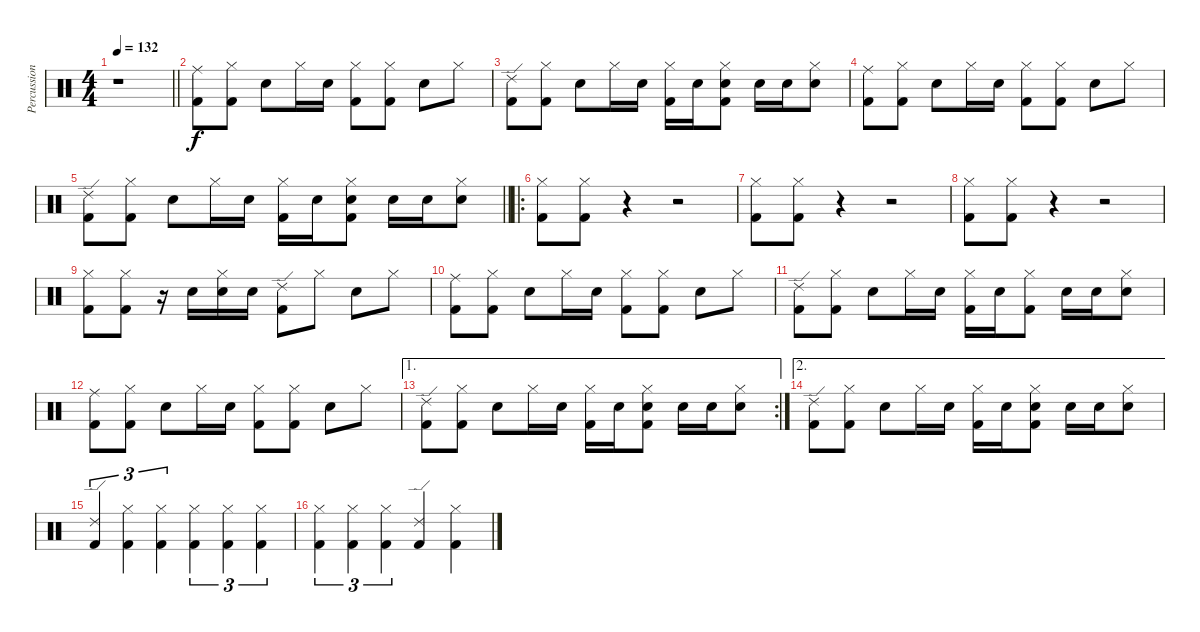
\track ("Percussions" "Percussion") {instrument percussion}
\staff {score}
\articulation defaults
\ts (4 4)
\tempo 132
\clef neutral
\barLineRight lightlight
\ks c
r.1{dy f} |
("Ride (middle)" "Kick (hit) 2").8 ("Hi-Hat (closed)" "Kick (hit) 2").8 "Snare (hit) 2".8 "Hi-Hat (closed)".16 "Snare (hit) 2".16 ("Hi-Hat (closed)" "Kick (hit) 2").8 ("Hi-Hat (closed)" "Kick (hit) 2").8 "Snare (hit) 2".8 "Hi-Hat (closed)".8 |
("Ride (edge) 2" "Kick (hit) 2").8 ("Hi-Hat (closed)" "Kick (hit) 2").8 "Snare (hit) 2".8 "Hi-Hat (closed)".16 "Snare (hit) 2".16 ("Hi-Hat (closed)" "Kick (hit) 2").16 "Snare (hit) 2".16 ("Hi-Hat (closed)" "Snare (hit) 2" "Kick (hit) 2").8 "Snare (hit) 2".16 "Snare (hit) 2".16 ("Hi-Hat (closed)" "Snare (hit) 2").8 |
("Ride (middle)" "Kick (hit) 2").8 ("Hi-Hat (closed)" "Kick (hit) 2").8 "Snare (hit) 2".8 "Hi-Hat (closed)".16 "Snare (hit) 2".16 ("Hi-Hat (closed)" "Kick (hit) 2").8 ("Hi-Hat (closed)" "Kick (hit) 2").8 "Snare (hit) 2".8 "Hi-Hat (closed)".8 |
\barLineRight lightlight
("Ride (edge) 2" "Kick (hit) 2").8 ("Hi-Hat (closed)" "Kick (hit) 2").8 "Snare (hit) 2".8 "Hi-Hat (closed)".16 "Snare (hit) 2".16 ("Hi-Hat (closed)" "Kick (hit) 2").16 "Snare (hit) 2".16 ("Hi-Hat (closed)" "Snare (hit) 2" "Kick (hit) 2").8 "Snare (hit) 2".16 "Snare (hit) 2".16 ("Hi-Hat (closed)" "Snare (hit) 2").8 |
\ro
("Hi-Hat (closed)" "Kick (hit) 2").8 ("Hi-Hat (closed)" "Kick (hit) 2").8 r.4 r.2 |
("Hi-Hat (closed)" "Kick (hit) 2").8 ("Hi-Hat (closed)" "Kick (hit) 2").8 r.4 r.2 |
("Hi-Hat (closed)" "Kick (hit) 2").8 ("Hi-Hat (closed)" "Kick (hit) 2").8 r.4 r.2 |
("Hi-Hat (closed)" "Kick (hit) 2").8 ("Hi-Hat (closed)" "Kick (hit) 2").8 r.16 "Snare (hit) 2".16 ("Hi-Hat (closed)" "Snare (hit) 2").16 "Snare (hit) 2".16 ("Ride (edge) 2" "Kick (hit) 2").8 "Hi-Hat (closed)".8 "Snare (hit) 2".8 "Hi-Hat (closed)".8 |
("Ride (middle)" "Kick (hit) 2").8 ("Hi-Hat (closed)" "Kick (hit) 2").8 "Snare (hit) 2".8 "Hi-Hat (closed)".16 "Snare (hit) 2".16 ("Hi-Hat (closed)" "Kick (hit) 2").8 ("Hi-Hat (closed)" "Kick (hit) 2").8 "Snare (hit) 2".8 "Hi-Hat (closed)".8 |
("Ride (edge) 2" "Kick (hit) 2").8 ("Hi-Hat (closed)" "Kick (hit) 2").8 "Snare (hit) 2".8 "Hi-Hat (closed)".16 "Snare (hit) 2".16 ("Hi-Hat (closed)" "Kick (hit) 2").16 "Snare (hit) 2".16 ("Hi-Hat (closed)" "Kick (hit) 2").8 "Snare (hit) 2".16 "Snare (hit) 2".16 ("Hi-Hat (closed)" "Snare (hit) 2").8 |
("Ride (middle)" "Kick (hit) 2").8 ("Hi-Hat (closed)" "Kick (hit) 2").8 "Snare (hit) 2".8 "Hi-Hat (closed)".16 "Snare (hit) 2".16 ("Hi-Hat (closed)" "Kick (hit) 2").8 ("Hi-Hat (closed)" "Kick (hit) 2").8 "Snare (hit) 2".8 "Hi-Hat (closed)".8 |
\ae 1
\rc 2
("Ride (edge) 2" "Kick (hit) 2").8 ("Hi-Hat (closed)" "Kick (hit) 2").8 "Snare (hit) 2".8 "Hi-Hat (closed)".16 "Snare (hit) 2".16 ("Hi-Hat (closed)" "Kick (hit) 2").16 "Snare (hit) 2".16 ("Hi-Hat (closed)" "Snare (hit) 2" "Kick (hit) 2").8 "Snare (hit) 2".16 "Snare (hit) 2".16 ("Hi-Hat (closed)" "Snare (hit) 2").8 |
\ae 2
("Ride (edge) 2" "Kick (hit) 2").8 ("Hi-Hat (closed)" "Kick (hit) 2").8 "Snare (hit) 2".8 "Hi-Hat (closed)".16 "Snare (hit) 2".16 ("Hi-Hat (closed)" "Kick (hit) 2").16 "Snare (hit) 2".16 ("Hi-Hat (closed)" "Snare (hit) 2" "Kick (hit) 2").8 "Snare (hit) 2".16 "Snare (hit) 2".16 ("Hi-Hat (closed)" "Snare (hit) 2").8 |
("Ride (edge) 2" "Kick (hit) 2").4{tu (3 2)} ("Hi-Hat (closed)" "Kick (hit) 2").4{tu (3 2)} ("Hi-Hat (closed)" "Kick (hit) 2").4{tu (3 2)} ("Hi-Hat (closed)" "Kick (hit) 2").4{tu (3 2)} ("Hi-Hat (closed)" "Kick (hit) 2").4{tu (3 2)} ("Hi-Hat (closed)" "Kick (hit) 2").4{tu (3 2)} |
("Hi-Hat (closed)" "Kick (hit) 2").4{tu (3 2)} ("Hi-Hat (closed)" "Kick (hit) 2").4{tu (3 2)} ("Hi-Hat (closed)" "Kick (hit) 2").4{tu (3 2)} ("Ride (edge) 2" "Kick (hit) 2").4 ("Hi-Hat (closed)" "Kick (hit) 2").4
